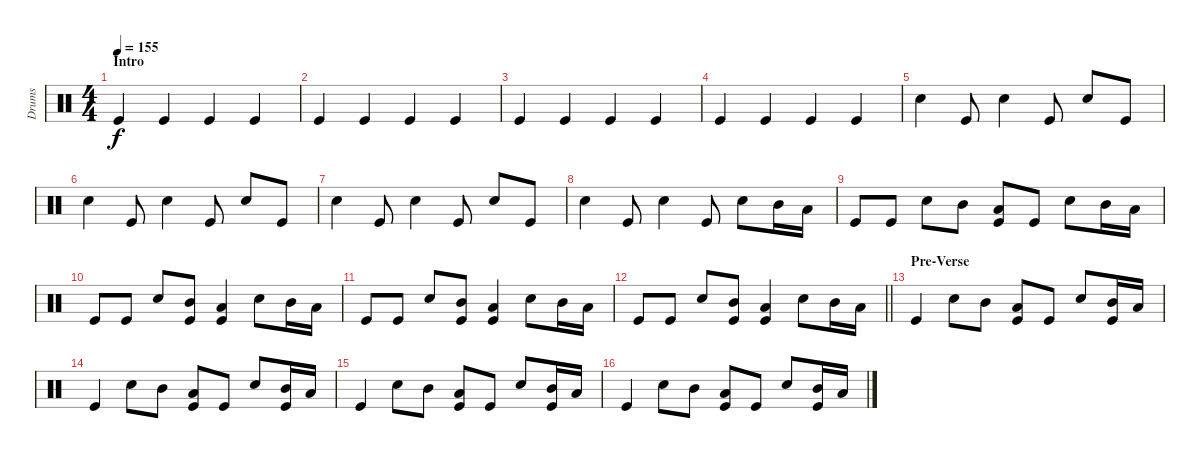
\track ("Drums" "Drums") {instrument percussion}
\staff {score}
\articulation defaults
\ts (4 4)
\section ("" "Intro")
\tempo 155
\clef neutral
\ks c "Kick (hit)".4{dy f} "Kick (hit)".4 "Kick (hit)".4 "Kick (hit)".4
|
"Kick (hit)".4 "Kick (hit)".4 "Kick (hit)".4 "Kick (hit)".4 |
"Kick (hit)".4 "Kick (hit)".4 "Kick (hit)".4 "Kick (hit)".4 |
"Kick (hit)".4 "Kick (hit)".4 "Kick (hit)".4 "Kick (hit)".4 |
"Snare (hit) 2".4 "Kick (hit)".8 "Snare (hit) 2".4 "Kick (hit)".8 "Snare (hit) 2".8 "Kick (hit)".8 |
"Snare (hit) 2".4 "Kick (hit)".8 "Snare (hit) 2".4 "Kick (hit)".8 "Snare (hit) 2".8 "Kick (hit)".8 |
"Snare (hit) 2".4 "Kick (hit)".8 "Snare (hit) 2".4 "Kick (hit)".8 "Snare (hit) 2".8 "Kick (hit)".8 |
"Snare (hit) 2".4 "Kick (hit)".8 "Snare (hit) 2".4 "Kick (hit)".8 "Snare (hit) 2".8 "Mid Tom (hit)".16 "Low Tom (hit)".16 |
"Kick (hit)".8 "Kick (hit)".8 "Snare (hit) 2".8 "Mid Tom (hit)".8 ("Low Tom (hit)" "Kick (hit)").8 "Kick (hit)".8 "Snare (hit) 2".8 "Mid Tom (hit)".16 "Low Tom (hit)".16 |
"Kick (hit)".8 "Kick (hit)".8 "Snare (hit) 2".8 ("Mid Tom (hit)" "Kick (hit)").8 ("Low Tom (hit)" "Kick (hit)").4 "Snare (hit) 2".8 "Mid Tom (hit)".16 "Low Tom (hit)".16 |
"Kick (hit)".8 "Kick (hit)".8 "Snare (hit) 2".8 ("Mid Tom (hit)" "Kick (hit)").8 ("Low Tom (hit)" "Kick (hit)").4 "Snare (hit) 2".8 "Mid Tom (hit)".16 "Low Tom (hit)".16 |
\barLineRight lightlight "Kick (hit)".8 "Kick (hit)".8 "Snare (hit) 2".8
("Mid Tom (hit)" "Kick (hit)").8 ("Low Tom (hit)" "Kick (hit)").4 "Snare (hit) 2".8 "Mid Tom (hit)".16 "Low Tom (hit)".16 |
\section ("" "Pre-Verse")
"Kick (hit)".4 "Snare (hit) 2".8 "Mid Tom (hit)".8 ("Low Tom (hit)" "Kick (hit)").8 "Kick (hit)".8 "Snare (hit) 2".8 ("Mid Tom (hit)" "Kick (hit)").16 "Low Tom (hit)".16 |
"Kick (hit)".4 "Snare (hit) 2".8 "Mid Tom (hit)".8 ("Low Tom (hit)" "Kick (hit)").8 "Kick (hit)".8 "Snare (hit) 2".8 ("Mid Tom (hit)" "Kick (hit)").16 "Low Tom (hit)".16 |
"Kick (hit)".4 "Snare (hit) 2".8 "Mid Tom (hit)".8 ("Low Tom (hit)" "Kick (hit)").8 "Kick (hit)".8 "Snare (hit) 2".8 ("Mid Tom (hit)" "Kick (hit)").16 "Low Tom (hit)".16 |
"Kick (hit)".4 "Snare (hit) 2".8 "Mid Tom (hit)".8 ("Low Tom (hit)" "Kick (hit)").8 "Kick (hit)".8 "Snare (hit) 2".8 ("Mid Tom (hit)" "Kick (hit)").16 "Low Tom (hit)".16
